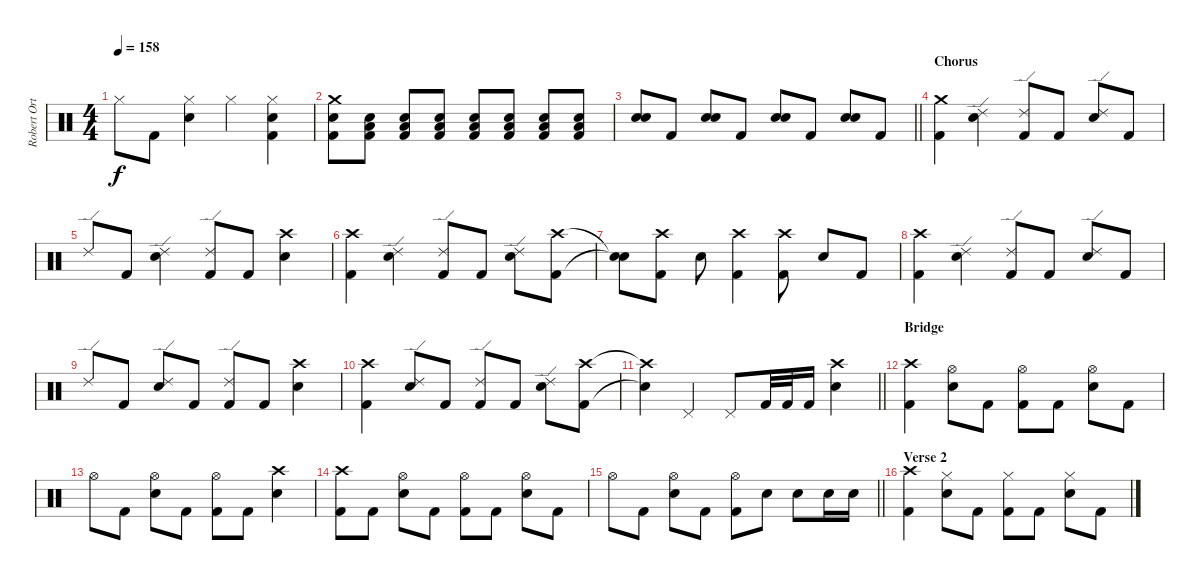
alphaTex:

\track ("Robert Ortiz [Drums]" "Robert Ort") {instrument percussion}
\staff {score}
\articulation defaults
\ts (4 4)
\tempo 158
\clef neutral
\ks c "Hi-Hat (closed)".8{dy f} "Kick (hit) 2".8
("Hi-Hat (closed)" "Electric Snare (hit)").4 "Hi-Hat (closed)".4 ("Hi-Hat (closed)" "Electric Snare (hit)" "Kick (hit) 2").4 |
("Crash medium (hit)" "Electric Snare (hit)" "Kick (hit) 2").8 ("Electric Snare (hit)" "Low Floor Tom (hit)" "Kick (hit) 2").8 ("Electric Snare (hit)" "Low Floor Tom (hit)" "Kick (hit) 2").8 ("Electric Snare (hit)" "Low Floor Tom (hit)" "Kick (hit) 2").8 ("Electric Snare (hit)" "Low Floor Tom (hit)" "Kick (hit) 2").8 ("Electric Snare (hit)" "Low Floor Tom (hit)" "Kick (hit) 2").8 ("Electric Snare (hit)" "Low Floor Tom (hit)" "Kick (hit) 2").8 ("Electric Snare (hit)" "Low Floor Tom (hit)" "Kick (hit) 2").8 |
\barLineRight lightlight
("Electric Snare (hit)" "Electric Snare (hit)").8{bd 120} "Kick (hit) 2".8 ("Electric Snare (hit)" "Electric Snare (hit)").8{bd 120} "Kick (hit) 2".8 ("Electric Snare (hit)" "Electric Snare (hit)").8{bd 120} "Kick (hit) 2".8 ("Electric Snare (hit)" "Electric Snare (hit)").8{bd 120} "Kick (hit) 2".8 |
\section ("" "Chorus")
("Crash medium (hit)" "Kick (hit) 2").4 ("Ride (edge) 2" "Electric Snare (hit)").4 ("Ride (edge) 2" "Kick (hit) 2").8 "Kick (hit) 2".8 ("Ride (edge) 2" "Electric Snare (hit)").8 "Kick (hit) 2".8 |
"Ride (edge) 2".8 "Kick (hit) 2".8 ("Ride (edge) 2" "Electric Snare (hit)").4 ("Ride (edge) 2" "Kick (hit) 2").8 "Kick (hit) 2".8 ("Crash high (hit)" "Electric Snare (hit)").4 |
("Crash high (hit)" "Kick (hit) 2").4 ("Ride (edge) 2" "Electric Snare (hit)").4 ("Ride (edge) 2" "Kick (hit) 2").8 "Kick (hit) 2".8 ("Ride (edge) 2" "Electric Snare (hit)").8 ("Crash high (hit)" "Kick (hit) 2").8 |
("Snare (hit)"{t} "Snare (hit)"{t}).8 ("Crash high (hit)" "Kick (hit) 2").8 "Electric Snare (hit)".8 ("Crash high (hit)" "Kick (hit) 2").4 ("Crash high (hit)" "Kick (hit) 2").8 "Electric Snare (hit)".8 "Kick (hit) 2".8 |
("Crash high (hit)" "Kick (hit) 2").4 ("Ride (edge) 2" "Electric Snare (hit)").4 ("Ride (edge) 2" "Kick (hit) 2").8 "Kick (hit) 2".8 ("Ride (edge) 2" "Electric Snare (hit)").8 "Kick (hit) 2".8 |
"Ride (edge) 2".8 "Kick (hit) 2".8 ("Ride (edge) 2" "Electric Snare (hit)").8 "Kick (hit) 2".8 ("Ride (edge) 2" "Kick (hit) 2").8 "Kick (hit) 2".8 ("Crash high (hit)" "Electric Snare (hit)").4 |
("Crash high (hit)" "Kick (hit) 2").4 ("Ride (edge) 2" "Electric Snare (hit)").8 "Kick (hit) 2".8 ("Ride (edge) 2" "Kick (hit) 2").8 "Kick (hit) 2".8 ("Ride (edge) 2" "Electric Snare (hit)").8 ("Crash high (hit)" "Kick (hit) 2").8 |
\barLineRight lightlight
("Crash high (hit)"{t} "Snare (hit)"{t}).4 "Pedal Hi-Hat (hit)".4 "Pedal Hi-Hat (hit)".8 "Kick (hit) 2".32 "Kick (hit) 2".32 "Kick (hit) 2".16 ("Crash high (hit)" "Electric Snare (hit)").4 |
\section ("" "Bridge")
("Crash high (hit)" "Kick (hit) 2").4 ("Hi-Hat (open)" "Electric Snare (hit)").8 "Kick (hit) 2".8 ("Hi-Hat (open)" "Kick (hit) 2").8 "Kick (hit) 2".8 ("Hi-Hat (open)" "Electric Snare (hit)").8 "Kick (hit) 2".8 |
"Hi-Hat (open)".8 "Kick (hit) 2".8 ("Hi-Hat (open)" "Electric Snare (hit)").8 "Kick (hit) 2".8 ("Hi-Hat (open)" "Kick (hit) 2").8 "Kick (hit) 2".8 ("Crash high (hit)" "Electric Snare (hit)").4 |
("Crash high (hit)" "Kick (hit) 2").8 "Kick (hit) 2".8 ("Hi-Hat (open)" "Electric Snare (hit)").8 "Kick (hit) 2".8 ("Hi-Hat (open)" "Kick (hit) 2").8 "Kick (hit) 2".8 ("Hi-Hat (open)" "Electric Snare (hit)").8 "Kick (hit) 2".8 |
\barLineRight lightlight "Hi-Hat (open)".8 "Kick (hit) 2".8
("Hi-Hat (open)" "Electric Snare (hit)").8 "Kick (hit) 2".8 ("Hi-Hat (open)" "Kick (hit) 2").8 "Electric Snare (hit)".8 "Electric Snare (hit)".8 "Electric Snare (hit)".16 "Electric Snare (hit)".16 |
\section ("" "Verse 2")
("Crash high (hit)" "Kick (hit) 2").4 ("Hi-Hat (closed)" "Electric Snare (hit)").8 "Kick (hit) 2".8 ("Hi-Hat (closed)" "Kick (hit) 2").8 "Kick (hit) 2".8 ("Hi-Hat (closed)" "Electric Snare (hit)").8 "Kick (hit) 2".8
